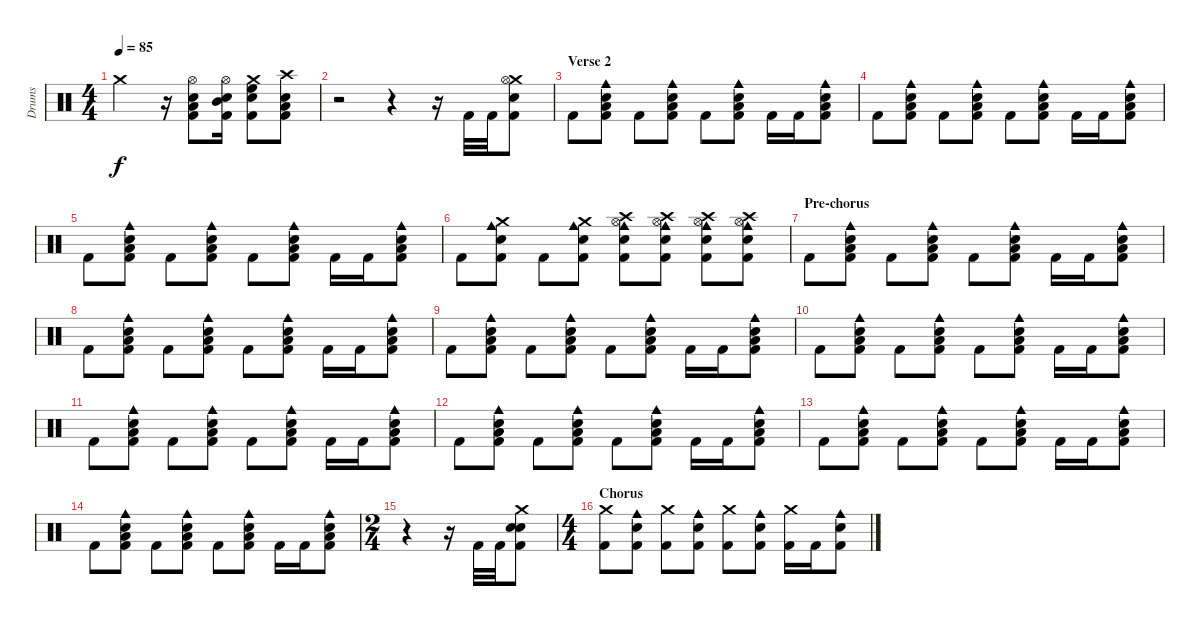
\track ("Drums" "Drums") {instrument percussion}
\staff {score}
\articulation defaults
\ts (4 4)
\tempo 85
\clef neutral
\ks c "Crash medium (hit)".2{dy f}
r.16 ("Hi-Hat (open)" "Low Tom (hit)" "Snare (hit) 2" "Kick (hit) 2").8 ("Hi-Hat (open)" "Mid Tom (hit)" "Electric Snare (hit)" "Kick (hit) 2").16 ("Crash medium (hit)" "High Floor Tom (hit)" "Electric Snare (hit)" "Kick (hit) 2").8 ("Crash high (hit)" "Low Floor Tom (hit)" "Snare (hit) 2" "Kick (hit) 2").8 |
r.2 r.4 r.16 "Kick (hit) 2".32 "Kick (hit) 2".32 ("Crash medium (hit)" "Hi-Hat (open)" "Snare (hit) 2" "Kick (hit) 2").8 |
\section ("" "Verse 2")
"Kick (hit) 2".8 ("Cowbell medium (hit)" "Electric Snare (hit)" "Low Tom (hit)" "Kick (hit) 2").8 "Kick (hit) 2".8 ("Cowbell medium (hit)" "Electric Snare (hit)" "Low Tom (hit)" "Kick (hit) 2").8 "Kick (hit) 2".8 ("Cowbell medium (hit)" "Electric Snare (hit)" "Low Tom (hit)" "Kick (hit) 2").8 "Kick (hit) 2".16 "Kick (hit) 2".16 ("Cowbell medium (hit)" "Electric Snare (hit)" "Low Tom (hit)" "Kick (hit) 2").8 |
"Kick (hit) 2".8 ("Cowbell medium (hit)" "Electric Snare (hit)" "Low Tom (hit)" "Kick (hit) 2").8 "Kick (hit) 2".8 ("Cowbell medium (hit)" "Electric Snare (hit)" "Low Tom (hit)" "Kick (hit) 2").8 "Kick (hit) 2".8 ("Cowbell medium (hit)" "Electric Snare (hit)" "Low Tom (hit)" "Kick (hit) 2").8 "Kick (hit) 2".16 "Kick (hit) 2".16 ("Cowbell medium (hit)" "Electric Snare (hit)" "Low Tom (hit)" "Kick (hit) 2").8 |
"Kick (hit) 2".8 ("Cowbell medium (hit)" "Electric Snare (hit)" "Low Tom (hit)" "Kick (hit) 2").8 "Kick (hit) 2".8 ("Cowbell medium (hit)" "Electric Snare (hit)" "Low Tom (hit)" "Kick (hit) 2").8 "Kick (hit) 2".8 ("Cowbell medium (hit)" "Electric Snare (hit)" "Low Tom (hit)" "Kick (hit) 2").8 "Kick (hit) 2".16 "Kick (hit) 2".16 ("Cowbell medium (hit)" "Electric Snare (hit)" "Low Tom (hit)" "Kick (hit) 2").8 |
"Kick (hit) 2".8 ("Cowbell medium (hit)" "Crash medium (hit)" "Electric Snare (hit)" "Kick (hit) 2").8 "Kick (hit) 2".8 ("Cowbell medium (hit)" "Crash medium (hit)" "Electric Snare (hit)" "Kick (hit) 2").8 ("Cowbell medium (hit)" "Crash high (hit)" "Hi-Hat (open)" "Electric Snare (hit)" "Kick (hit) 2").8 ("Cowbell medium (hit)" "Crash high (hit)" "Hi-Hat (open)" "Electric Snare (hit)" "Kick (hit) 2").8 ("Cowbell medium (hit)" "Crash high (hit)" "Hi-Hat (open)" "Electric Snare (hit)" "Kick (hit) 2").8 ("Cowbell medium (hit)" "Crash high (hit)" "Hi-Hat (open)" "Electric Snare (hit)" "Kick (hit) 2").8 |
\section ("" "Pre-chorus")
"Kick (hit) 2".8 ("Cowbell medium (hit)" "Electric Snare (hit)" "Low Tom (hit)" "Kick (hit) 2").8 "Kick (hit) 2".8 ("Cowbell medium (hit)" "Electric Snare (hit)" "Low Tom (hit)" "Kick (hit) 2").8 "Kick (hit) 2".8 ("Cowbell medium (hit)" "Electric Snare (hit)" "Low Tom (hit)" "Kick (hit) 2").8 "Kick (hit) 2".16 "Kick (hit) 2".16 ("Cowbell medium (hit)" "Electric Snare (hit)" "Low Tom (hit)" "Kick (hit) 2").8 |
"Kick (hit) 2".8 ("Cowbell medium (hit)" "Electric Snare (hit)" "Low Tom (hit)" "Kick (hit) 2").8 "Kick (hit) 2".8 ("Cowbell medium (hit)" "Electric Snare (hit)" "Low Tom (hit)" "Kick (hit) 2").8 "Kick (hit) 2".8 ("Cowbell medium (hit)" "Electric Snare (hit)" "Low Tom (hit)" "Kick (hit) 2").8 "Kick (hit) 2".16 "Kick (hit) 2".16 ("Cowbell medium (hit)" "Electric Snare (hit)" "Low Tom (hit)" "Kick (hit) 2").8 |
"Kick (hit) 2".8 ("Cowbell medium (hit)" "Electric Snare (hit)" "Low Tom (hit)" "Kick (hit) 2").8 "Kick (hit) 2".8 ("Cowbell medium (hit)" "Electric Snare (hit)" "Low Tom (hit)" "Kick (hit) 2").8 "Kick (hit) 2".8 ("Cowbell medium (hit)" "Electric Snare (hit)" "Low Tom (hit)" "Kick (hit) 2").8 "Kick (hit) 2".16 "Kick (hit) 2".16 ("Cowbell medium (hit)" "Electric Snare (hit)" "Low Tom (hit)" "Kick (hit) 2").8 |
"Kick (hit) 2".8 ("Cowbell medium (hit)" "Electric Snare (hit)" "Low Tom (hit)" "Kick (hit) 2").8 "Kick (hit) 2".8 ("Cowbell medium (hit)" "Electric Snare (hit)" "Low Tom (hit)" "Kick (hit) 2").8 "Kick (hit) 2".8 ("Cowbell medium (hit)" "Electric Snare (hit)" "Low Tom (hit)" "Kick (hit) 2").8 "Kick (hit) 2".16 "Kick (hit) 2".16 ("Cowbell medium (hit)" "Electric Snare (hit)" "Low Tom (hit)" "Kick (hit) 2").8 |
"Kick (hit) 2".8 ("Cowbell medium (hit)" "Electric Snare (hit)" "Low Tom (hit)" "Kick (hit) 2").8 "Kick (hit) 2".8 ("Cowbell medium (hit)" "Electric Snare (hit)" "Low Tom (hit)" "Kick (hit) 2").8 "Kick (hit) 2".8 ("Cowbell medium (hit)" "Electric Snare (hit)" "Low Tom (hit)" "Kick (hit) 2").8 "Kick (hit) 2".16 "Kick (hit) 2".16 ("Cowbell medium (hit)" "Electric Snare (hit)" "Low Tom (hit)" "Kick (hit) 2").8 |
"Kick (hit) 2".8 ("Cowbell medium (hit)" "Electric Snare (hit)" "Low Tom (hit)" "Kick (hit) 2").8 "Kick (hit) 2".8 ("Cowbell medium (hit)" "Electric Snare (hit)" "Low Tom (hit)" "Kick (hit) 2").8 "Kick (hit) 2".8 ("Cowbell medium (hit)" "Electric Snare (hit)" "Low Tom (hit)" "Kick (hit) 2").8 "Kick (hit) 2".16 "Kick (hit) 2".16 ("Cowbell medium (hit)" "Electric Snare (hit)" "Low Tom (hit)" "Kick (hit) 2").8 |
"Kick (hit) 2".8 ("Cowbell medium (hit)" "Electric Snare (hit)" "Low Tom (hit)" "Kick (hit) 2").8 "Kick (hit) 2".8 ("Cowbell medium (hit)" "Electric Snare (hit)" "Low Tom (hit)" "Kick (hit) 2").8 "Kick (hit) 2".8 ("Cowbell medium (hit)" "Electric Snare (hit)" "Low Tom (hit)" "Kick (hit) 2").8 "Kick (hit) 2".16 "Kick (hit) 2".16 ("Cowbell medium (hit)" "Electric Snare (hit)" "Low Tom (hit)" "Kick (hit) 2").8 |
"Kick (hit) 2".8 ("Cowbell medium (hit)" "Electric Snare (hit)" "Low Tom (hit)" "Kick (hit) 2").8 "Kick (hit) 2".8 ("Cowbell medium (hit)" "Electric Snare (hit)" "Low Tom (hit)" "Kick (hit) 2").8 "Kick (hit) 2".8 ("Cowbell medium (hit)" "Electric Snare (hit)" "Low Tom (hit)" "Kick (hit) 2").8 "Kick (hit) 2".16 "Kick (hit) 2".16 ("Cowbell medium (hit)" "Electric Snare (hit)" "Low Tom (hit)" "Kick (hit) 2").8 |
\ts (2 4)
r.4 r.16 "Kick (hit) 2".32 "Kick (hit) 2".32 ("Crash medium (hit)" "Electric Snare (hit)" "Snare (hit) 2" "Kick (hit) 2").8 |
\ts (4 4)
\section ("" "Chorus")
("Crash medium (hit)" "Kick (hit) 2").8 ("Cowbell medium (hit)" "Electric Snare (hit)" "Kick (hit) 2").8 ("Crash medium (hit)" "Kick (hit) 2").8 ("Cowbell medium (hit)" "Electric Snare (hit)" "Kick (hit) 2").8 ("Crash medium (hit)" "Kick (hit) 2").8 ("Cowbell medium (hit)" "Electric Snare (hit)" "Kick (hit) 2").8 ("Crash medium (hit)" "Kick (hit) 2").16 "Kick (hit) 2".16 ("Cowbell medium (hit)" "Electric Snare (hit)" "Kick (hit) 2").8
